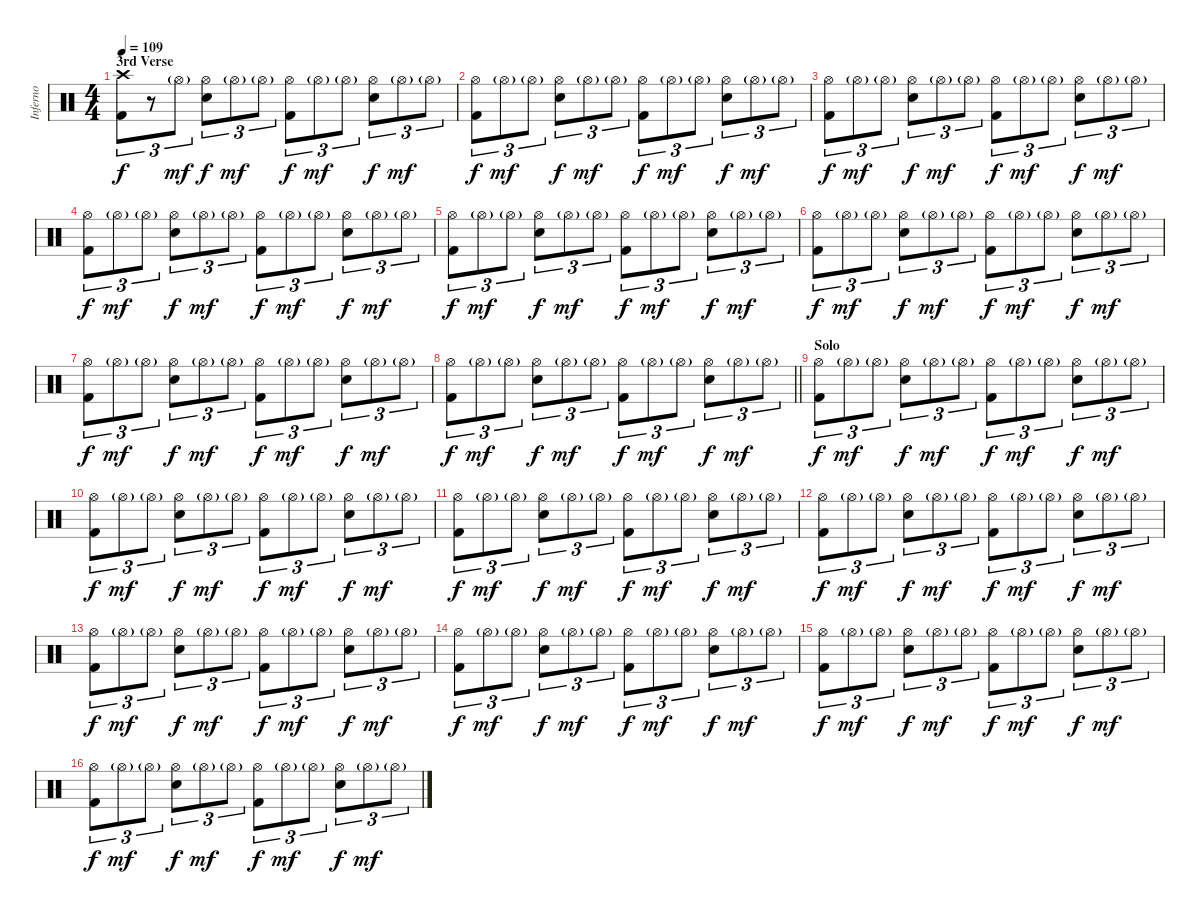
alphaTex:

\track ("Inferno" "Inferno") {instrument percussion}
\staff {score}
\articulation defaults
\ts (4 4)
\section ("" "3rd Verse")
\tempo 109
\clef neutral
\ks c
("Crash high (hit)" "Kick (hit) 2").8{tu (3 2) dy f} r.8{tu (3 2)} "Hi-Hat (open)"{g}.8{tu (3 2) dy mf} ("Hi-Hat (open)" "Snare (hit) 2").8{tu (3 2) dy f} "Hi-Hat (open)"{g}.8{tu (3 2) dy mf} "Hi-Hat (open)"{g}.8{tu (3 2)} ("Hi-Hat (open)" "Kick (hit) 2").8{tu (3 2) dy f} "Hi-Hat (open)"{g}.8{tu (3 2) dy mf} "Hi-Hat (open)"{g}.8{tu (3 2)} ("Hi-Hat (open)" "Snare (hit) 2").8{tu (3 2) dy f} "Hi-Hat (open)"{g}.8{tu (3 2) dy mf} "Hi-Hat (open)"{g}.8{tu (3 2)} |
("Hi-Hat (open)" "Kick (hit) 2").8{tu (3 2) dy f} "Hi-Hat (open)"{g}.8{tu (3 2) dy mf} "Hi-Hat (open)"{g}.8{tu (3 2)} ("Hi-Hat (open)" "Snare (hit) 2").8{tu (3 2) dy f} "Hi-Hat (open)"{g}.8{tu (3 2) dy mf} "Hi-Hat (open)"{g}.8{tu (3 2)} ("Hi-Hat (open)" "Kick (hit) 2").8{tu (3 2) dy f} "Hi-Hat (open)"{g}.8{tu (3 2) dy mf} "Hi-Hat (open)"{g}.8{tu (3 2)} ("Hi-Hat (open)" "Snare (hit) 2").8{tu (3 2) dy f} "Hi-Hat (open)"{g}.8{tu (3 2) dy mf} "Hi-Hat (open)"{g}.8{tu (3 2)} |
("Hi-Hat (open)" "Kick (hit) 2").8{tu (3 2) dy f} "Hi-Hat (open)"{g}.8{tu (3 2) dy mf} "Hi-Hat (open)"{g}.8{tu (3 2)} ("Hi-Hat (open)" "Snare (hit) 2").8{tu (3 2) dy f} "Hi-Hat (open)"{g}.8{tu (3 2) dy mf} "Hi-Hat (open)"{g}.8{tu (3 2)} ("Hi-Hat (open)" "Kick (hit) 2").8{tu (3 2) dy f} "Hi-Hat (open)"{g}.8{tu (3 2) dy mf} "Hi-Hat (open)"{g}.8{tu (3 2)} ("Hi-Hat (open)" "Snare (hit) 2").8{tu (3 2) dy f} "Hi-Hat (open)"{g}.8{tu (3 2) dy mf} "Hi-Hat (open)"{g}.8{tu (3 2)} |
("Hi-Hat (open)" "Kick (hit) 2").8{tu (3 2) dy f} "Hi-Hat (open)"{g}.8{tu (3 2) dy mf} "Hi-Hat (open)"{g}.8{tu (3 2)} ("Hi-Hat (open)" "Snare (hit) 2").8{tu (3 2) dy f} "Hi-Hat (open)"{g}.8{tu (3 2) dy mf} "Hi-Hat (open)"{g}.8{tu (3 2)} ("Hi-Hat (open)" "Kick (hit) 2").8{tu (3 2) dy f} "Hi-Hat (open)"{g}.8{tu (3 2) dy mf} "Hi-Hat (open)"{g}.8{tu (3 2)} ("Hi-Hat (open)" "Snare (hit) 2").8{tu (3 2) dy f} "Hi-Hat (open)"{g}.8{tu (3 2) dy mf} "Hi-Hat (open)"{g}.8{tu (3 2)} |
("Hi-Hat (open)" "Kick (hit) 2").8{tu (3 2) dy f} "Hi-Hat (open)"{g}.8{tu (3 2) dy mf} "Hi-Hat (open)"{g}.8{tu (3 2)} ("Hi-Hat (open)" "Snare (hit) 2").8{tu (3 2) dy f} "Hi-Hat (open)"{g}.8{tu (3 2) dy mf} "Hi-Hat (open)"{g}.8{tu (3 2)} ("Hi-Hat (open)" "Kick (hit) 2").8{tu (3 2) dy f} "Hi-Hat (open)"{g}.8{tu (3 2) dy mf} "Hi-Hat (open)"{g}.8{tu (3 2)} ("Hi-Hat (open)" "Snare (hit) 2").8{tu (3 2) dy f} "Hi-Hat (open)"{g}.8{tu (3 2) dy mf} "Hi-Hat (open)"{g}.8{tu (3 2)} |
("Hi-Hat (open)" "Kick (hit) 2").8{tu (3 2) dy f} "Hi-Hat (open)"{g}.8{tu (3 2) dy mf} "Hi-Hat (open)"{g}.8{tu (3 2)} ("Hi-Hat (open)" "Snare (hit) 2").8{tu (3 2) dy f} "Hi-Hat (open)"{g}.8{tu (3 2) dy mf} "Hi-Hat (open)"{g}.8{tu (3 2)} ("Hi-Hat (open)" "Kick (hit) 2").8{tu (3 2) dy f} "Hi-Hat (open)"{g}.8{tu (3 2) dy mf} "Hi-Hat (open)"{g}.8{tu (3 2)} ("Hi-Hat (open)" "Snare (hit) 2").8{tu (3 2) dy f} "Hi-Hat (open)"{g}.8{tu (3 2) dy mf} "Hi-Hat (open)"{g}.8{tu (3 2)} |
("Hi-Hat (open)" "Kick (hit) 2").8{tu (3 2) dy f} "Hi-Hat (open)"{g}.8{tu (3 2) dy mf} "Hi-Hat (open)"{g}.8{tu (3 2)} ("Hi-Hat (open)" "Snare (hit) 2").8{tu (3 2) dy f} "Hi-Hat (open)"{g}.8{tu (3 2) dy mf} "Hi-Hat (open)"{g}.8{tu (3 2)} ("Hi-Hat (open)" "Kick (hit) 2").8{tu (3 2) dy f} "Hi-Hat (open)"{g}.8{tu (3 2) dy mf} "Hi-Hat (open)"{g}.8{tu (3 2)} ("Hi-Hat (open)" "Snare (hit) 2").8{tu (3 2) dy f} "Hi-Hat (open)"{g}.8{tu (3 2) dy mf} "Hi-Hat (open)"{g}.8{tu (3 2)} |
\barLineRight lightlight
("Hi-Hat (open)" "Kick (hit) 2").8{tu (3 2) dy f} "Hi-Hat (open)"{g}.8{tu (3 2) dy mf} "Hi-Hat (open)"{g}.8{tu (3 2)} ("Hi-Hat (open)" "Snare (hit) 2").8{tu (3 2) dy f} "Hi-Hat (open)"{g}.8{tu (3 2) dy mf} "Hi-Hat (open)"{g}.8{tu (3 2)} ("Hi-Hat (open)" "Kick (hit) 2").8{tu (3 2) dy f} "Hi-Hat (open)"{g}.8{tu (3 2) dy mf} "Hi-Hat (open)"{g}.8{tu (3 2)} ("Hi-Hat (open)" "Snare (hit) 2").8{tu (3 2) dy f} "Hi-Hat (open)"{g}.8{tu (3 2) dy mf} "Hi-Hat (open)"{g}.8{tu (3 2)} |
\section ("" "Solo ")
("Hi-Hat (open)" "Kick (hit) 2").8{tu (3 2) dy f} "Hi-Hat (open)"{g}.8{tu (3 2) dy mf} "Hi-Hat (open)"{g}.8{tu (3 2)} ("Hi-Hat (open)" "Snare (hit) 2").8{tu (3 2) dy f} "Hi-Hat (open)"{g}.8{tu (3 2) dy mf} "Hi-Hat (open)"{g}.8{tu (3 2)} ("Hi-Hat (open)" "Kick (hit) 2").8{tu (3 2) dy f} "Hi-Hat (open)"{g}.8{tu (3 2) dy mf} "Hi-Hat (open)"{g}.8{tu (3 2)} ("Hi-Hat (open)" "Snare (hit) 2").8{tu (3 2) dy f} "Hi-Hat (open)"{g}.8{tu (3 2) dy mf} "Hi-Hat (open)"{g}.8{tu (3 2)} |
("Hi-Hat (open)" "Kick (hit) 2").8{tu (3 2) dy f} "Hi-Hat (open)"{g}.8{tu (3 2) dy mf} "Hi-Hat (open)"{g}.8{tu (3 2)} ("Hi-Hat (open)" "Snare (hit) 2").8{tu (3 2) dy f} "Hi-Hat (open)"{g}.8{tu (3 2) dy mf} "Hi-Hat (open)"{g}.8{tu (3 2)} ("Hi-Hat (open)" "Kick (hit) 2").8{tu (3 2) dy f} "Hi-Hat (open)"{g}.8{tu (3 2) dy mf} "Hi-Hat (open)"{g}.8{tu (3 2)} ("Hi-Hat (open)" "Snare (hit) 2").8{tu (3 2) dy f} "Hi-Hat (open)"{g}.8{tu (3 2) dy mf} "Hi-Hat (open)"{g}.8{tu (3 2)} |
("Hi-Hat (open)" "Kick (hit) 2").8{tu (3 2) dy f} "Hi-Hat (open)"{g}.8{tu (3 2) dy mf} "Hi-Hat (open)"{g}.8{tu (3 2)} ("Hi-Hat (open)" "Snare (hit) 2").8{tu (3 2) dy f} "Hi-Hat (open)"{g}.8{tu (3 2) dy mf} "Hi-Hat (open)"{g}.8{tu (3 2)} ("Hi-Hat (open)" "Kick (hit) 2").8{tu (3 2) dy f} "Hi-Hat (open)"{g}.8{tu (3 2) dy mf} "Hi-Hat (open)"{g}.8{tu (3 2)} ("Hi-Hat (open)" "Snare (hit) 2").8{tu (3 2) dy f} "Hi-Hat (open)"{g}.8{tu (3 2) dy mf} "Hi-Hat (open)"{g}.8{tu (3 2)} |
("Hi-Hat (open)" "Kick (hit) 2").8{tu (3 2) dy f} "Hi-Hat (open)"{g}.8{tu (3 2) dy mf} "Hi-Hat (open)"{g}.8{tu (3 2)} ("Hi-Hat (open)" "Snare (hit) 2").8{tu (3 2) dy f} "Hi-Hat (open)"{g}.8{tu (3 2) dy mf} "Hi-Hat (open)"{g}.8{tu (3 2)} ("Hi-Hat (open)" "Kick (hit) 2").8{tu (3 2) dy f} "Hi-Hat (open)"{g}.8{tu (3 2) dy mf} "Hi-Hat (open)"{g}.8{tu (3 2)} ("Hi-Hat (open)" "Snare (hit) 2").8{tu (3 2) dy f} "Hi-Hat (open)"{g}.8{tu (3 2) dy mf} "Hi-Hat (open)"{g}.8{tu (3 2)} |
("Hi-Hat (open)" "Kick (hit) 2").8{tu (3 2) dy f} "Hi-Hat (open)"{g}.8{tu (3 2) dy mf} "Hi-Hat (open)"{g}.8{tu (3 2)} ("Hi-Hat (open)" "Snare (hit) 2").8{tu (3 2) dy f} "Hi-Hat (open)"{g}.8{tu (3 2) dy mf} "Hi-Hat (open)"{g}.8{tu (3 2)} ("Hi-Hat (open)" "Kick (hit) 2").8{tu (3 2) dy f} "Hi-Hat (open)"{g}.8{tu (3 2) dy mf} "Hi-Hat (open)"{g}.8{tu (3 2)} ("Hi-Hat (open)" "Snare (hit) 2").8{tu (3 2) dy f} "Hi-Hat (open)"{g}.8{tu (3 2) dy mf} "Hi-Hat (open)"{g}.8{tu (3 2)} |
("Hi-Hat (open)" "Kick (hit) 2").8{tu (3 2) dy f} "Hi-Hat (open)"{g}.8{tu (3 2) dy mf} "Hi-Hat (open)"{g}.8{tu (3 2)} ("Hi-Hat (open)" "Snare (hit) 2").8{tu (3 2) dy f} "Hi-Hat (open)"{g}.8{tu (3 2) dy mf} "Hi-Hat (open)"{g}.8{tu (3 2)} ("Hi-Hat (open)" "Kick (hit) 2").8{tu (3 2) dy f} "Hi-Hat (open)"{g}.8{tu (3 2) dy mf} "Hi-Hat (open)"{g}.8{tu (3 2)} ("Hi-Hat (open)" "Snare (hit) 2").8{tu (3 2) dy f} "Hi-Hat (open)"{g}.8{tu (3 2) dy mf} "Hi-Hat (open)"{g}.8{tu (3 2)} |
("Hi-Hat (open)" "Kick (hit) 2").8{tu (3 2) dy f} "Hi-Hat (open)"{g}.8{tu (3 2) dy mf} "Hi-Hat (open)"{g}.8{tu (3 2)} ("Hi-Hat (open)" "Snare (hit) 2").8{tu (3 2) dy f} "Hi-Hat (open)"{g}.8{tu (3 2) dy mf} "Hi-Hat (open)"{g}.8{tu (3 2)} ("Hi-Hat (open)" "Kick (hit) 2").8{tu (3 2) dy f} "Hi-Hat (open)"{g}.8{tu (3 2) dy mf} "Hi-Hat (open)"{g}.8{tu (3 2)} ("Hi-Hat (open)" "Snare (hit) 2").8{tu (3 2) dy f} "Hi-Hat (open)"{g}.8{tu (3 2) dy mf} "Hi-Hat (open)"{g}.8{tu (3 2)} |
("Hi-Hat (open)" "Kick (hit) 2").8{tu (3 2) dy f} "Hi-Hat (open)"{g}.8{tu (3 2) dy mf} "Hi-Hat (open)"{g}.8{tu (3 2)} ("Hi-Hat (open)" "Snare (hit) 2").8{tu (3 2) dy f} "Hi-Hat (open)"{g}.8{tu (3 2) dy mf} "Hi-Hat (open)"{g}.8{tu (3 2)} ("Hi-Hat (open)" "Kick (hit) 2").8{tu (3 2) dy f} "Hi-Hat (open)"{g}.8{tu (3 2) dy mf} "Hi-Hat (open)"{g}.8{tu (3 2)} ("Hi-Hat (open)" "Snare (hit) 2").8{tu (3 2) dy f} "Hi-Hat (open)"{g}.8{tu (3 2) dy mf} "Hi-Hat (open)"{g}.8{tu (3 2)}
